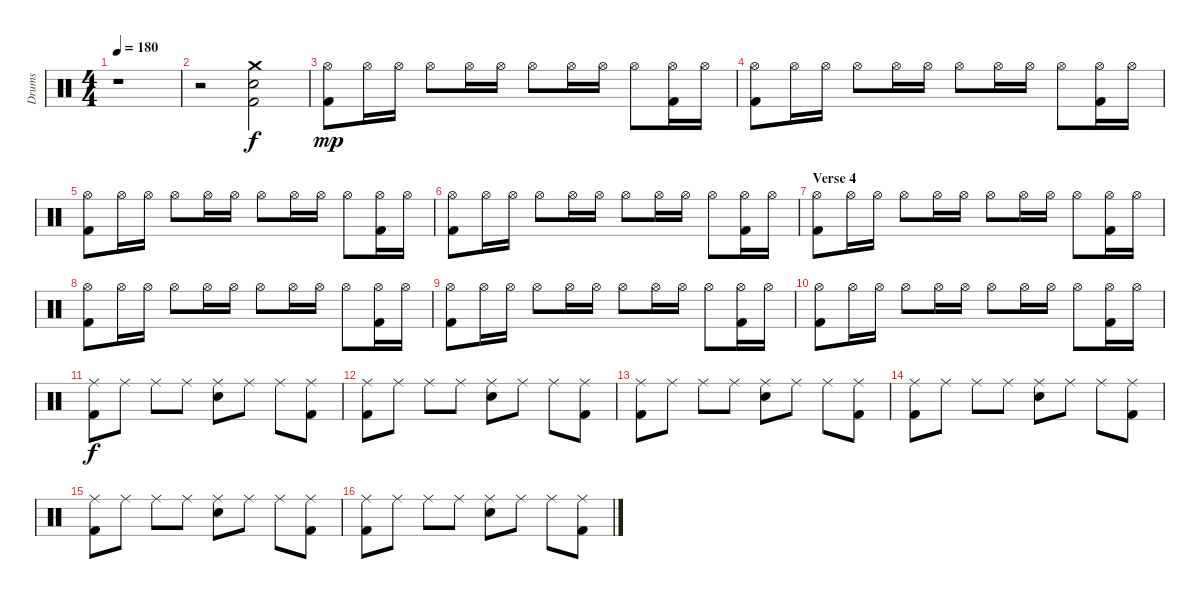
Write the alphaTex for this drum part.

\track ("Drums" "Drums") {instrument percussion}
\staff {score}
\articulation defaults
\ts (4 4)
\tempo 180
\clef neutral
\ks c
r.1{dy f} |
r.2 ("Kick (hit) 2" "Electric Snare (hit)" "Crash medium (hit)").2 |
("Kick (hit) 2" "Hi-Hat (open)").8{dy mp} "Hi-Hat (open)".16 "Hi-Hat (open)".16 "Hi-Hat (open)".8 "Hi-Hat (open)".16 "Hi-Hat (open)".16 "Hi-Hat (open)".8 "Hi-Hat (open)".16 "Hi-Hat (open)".16 "Hi-Hat (open)".8 ("Kick (hit) 2" "Hi-Hat (open)").16 "Hi-Hat (open)".16 |
("Kick (hit) 2" "Hi-Hat (open)").8 "Hi-Hat (open)".16 "Hi-Hat (open)".16 "Hi-Hat (open)".8 "Hi-Hat (open)".16 "Hi-Hat (open)".16 "Hi-Hat (open)".8 "Hi-Hat (open)".16 "Hi-Hat (open)".16 "Hi-Hat (open)".8 ("Kick (hit) 2" "Hi-Hat (open)").16 "Hi-Hat (open)".16 |
("Kick (hit) 2" "Hi-Hat (open)").8 "Hi-Hat (open)".16 "Hi-Hat (open)".16 "Hi-Hat (open)".8 "Hi-Hat (open)".16 "Hi-Hat (open)".16 "Hi-Hat (open)".8 "Hi-Hat (open)".16 "Hi-Hat (open)".16 "Hi-Hat (open)".8 ("Kick (hit) 2" "Hi-Hat (open)").16 "Hi-Hat (open)".16 |
("Kick (hit) 2" "Hi-Hat (open)").8 "Hi-Hat (open)".16 "Hi-Hat (open)".16 "Hi-Hat (open)".8 "Hi-Hat (open)".16 "Hi-Hat (open)".16 "Hi-Hat (open)".8 "Hi-Hat (open)".16 "Hi-Hat (open)".16 "Hi-Hat (open)".8 ("Kick (hit) 2" "Hi-Hat (open)").16 "Hi-Hat (open)".16 |
\section ("" "Verse 4")
("Kick (hit) 2" "Hi-Hat (open)").8 "Hi-Hat (open)".16 "Hi-Hat (open)".16 "Hi-Hat (open)".8 "Hi-Hat (open)".16 "Hi-Hat (open)".16 "Hi-Hat (open)".8 "Hi-Hat (open)".16 "Hi-Hat (open)".16 "Hi-Hat (open)".8 ("Kick (hit) 2" "Hi-Hat (open)").16 "Hi-Hat (open)".16 |
("Kick (hit) 2" "Hi-Hat (open)").8 "Hi-Hat (open)".16 "Hi-Hat (open)".16 "Hi-Hat (open)".8 "Hi-Hat (open)".16 "Hi-Hat (open)".16 "Hi-Hat (open)".8 "Hi-Hat (open)".16 "Hi-Hat (open)".16 "Hi-Hat (open)".8 ("Kick (hit) 2" "Hi-Hat (open)").16 "Hi-Hat (open)".16 |
("Kick (hit) 2" "Hi-Hat (open)").8 "Hi-Hat (open)".16 "Hi-Hat (open)".16 "Hi-Hat (open)".8 "Hi-Hat (open)".16 "Hi-Hat (open)".16 "Hi-Hat (open)".8 "Hi-Hat (open)".16 "Hi-Hat (open)".16 "Hi-Hat (open)".8 ("Kick (hit) 2" "Hi-Hat (open)").16 "Hi-Hat (open)".16 |
("Kick (hit) 2" "Hi-Hat (open)").8 "Hi-Hat (open)".16 "Hi-Hat (open)".16 "Hi-Hat (open)".8 "Hi-Hat (open)".16 "Hi-Hat (open)".16 "Hi-Hat (open)".8 "Hi-Hat (open)".16 "Hi-Hat (open)".16 "Hi-Hat (open)".8 ("Kick (hit) 2" "Hi-Hat (open)").16 "Hi-Hat (open)".16 |
("Kick (hit) 2" "Ride (middle)").8{dy f} "Ride (middle)".8 "Ride (middle)".8 "Ride (middle)".8 ("Electric Snare (hit)" "Ride (middle)").8 "Ride (middle)".8 "Ride (middle)".8 ("Kick (hit) 2" "Ride (middle)").8 |
("Kick (hit) 2" "Ride (middle)").8 "Ride (middle)".8 "Ride (middle)".8 "Ride (middle)".8 ("Electric Snare (hit)" "Ride (middle)").8 "Ride (middle)".8 "Ride (middle)".8 ("Kick (hit) 2" "Ride (middle)").8 |
("Kick (hit) 2" "Ride (middle)").8 "Ride (middle)".8 "Ride (middle)".8 "Ride (middle)".8 ("Electric Snare (hit)" "Ride (middle)").8 "Ride (middle)".8 "Ride (middle)".8 ("Kick (hit) 2" "Ride (middle)").8 |
("Kick (hit) 2" "Ride (middle)").8 "Ride (middle)".8 "Ride (middle)".8 "Ride (middle)".8 ("Electric Snare (hit)" "Ride (middle)").8 "Ride (middle)".8 "Ride (middle)".8 ("Kick (hit) 2" "Ride (middle)").8 |
("Kick (hit) 2" "Ride (middle)").8 "Ride (middle)".8 "Ride (middle)".8 "Ride (middle)".8 ("Electric Snare (hit)" "Ride (middle)").8 "Ride (middle)".8 "Ride (middle)".8 ("Kick (hit) 2" "Ride (middle)").8 |
("Kick (hit) 2" "Ride (middle)").8 "Ride (middle)".8 "Ride (middle)".8 "Ride (middle)".8 ("Electric Snare (hit)" "Ride (middle)").8 "Ride (middle)".8 "Ride (middle)".8 ("Kick (hit) 2" "Ride (middle)").8
